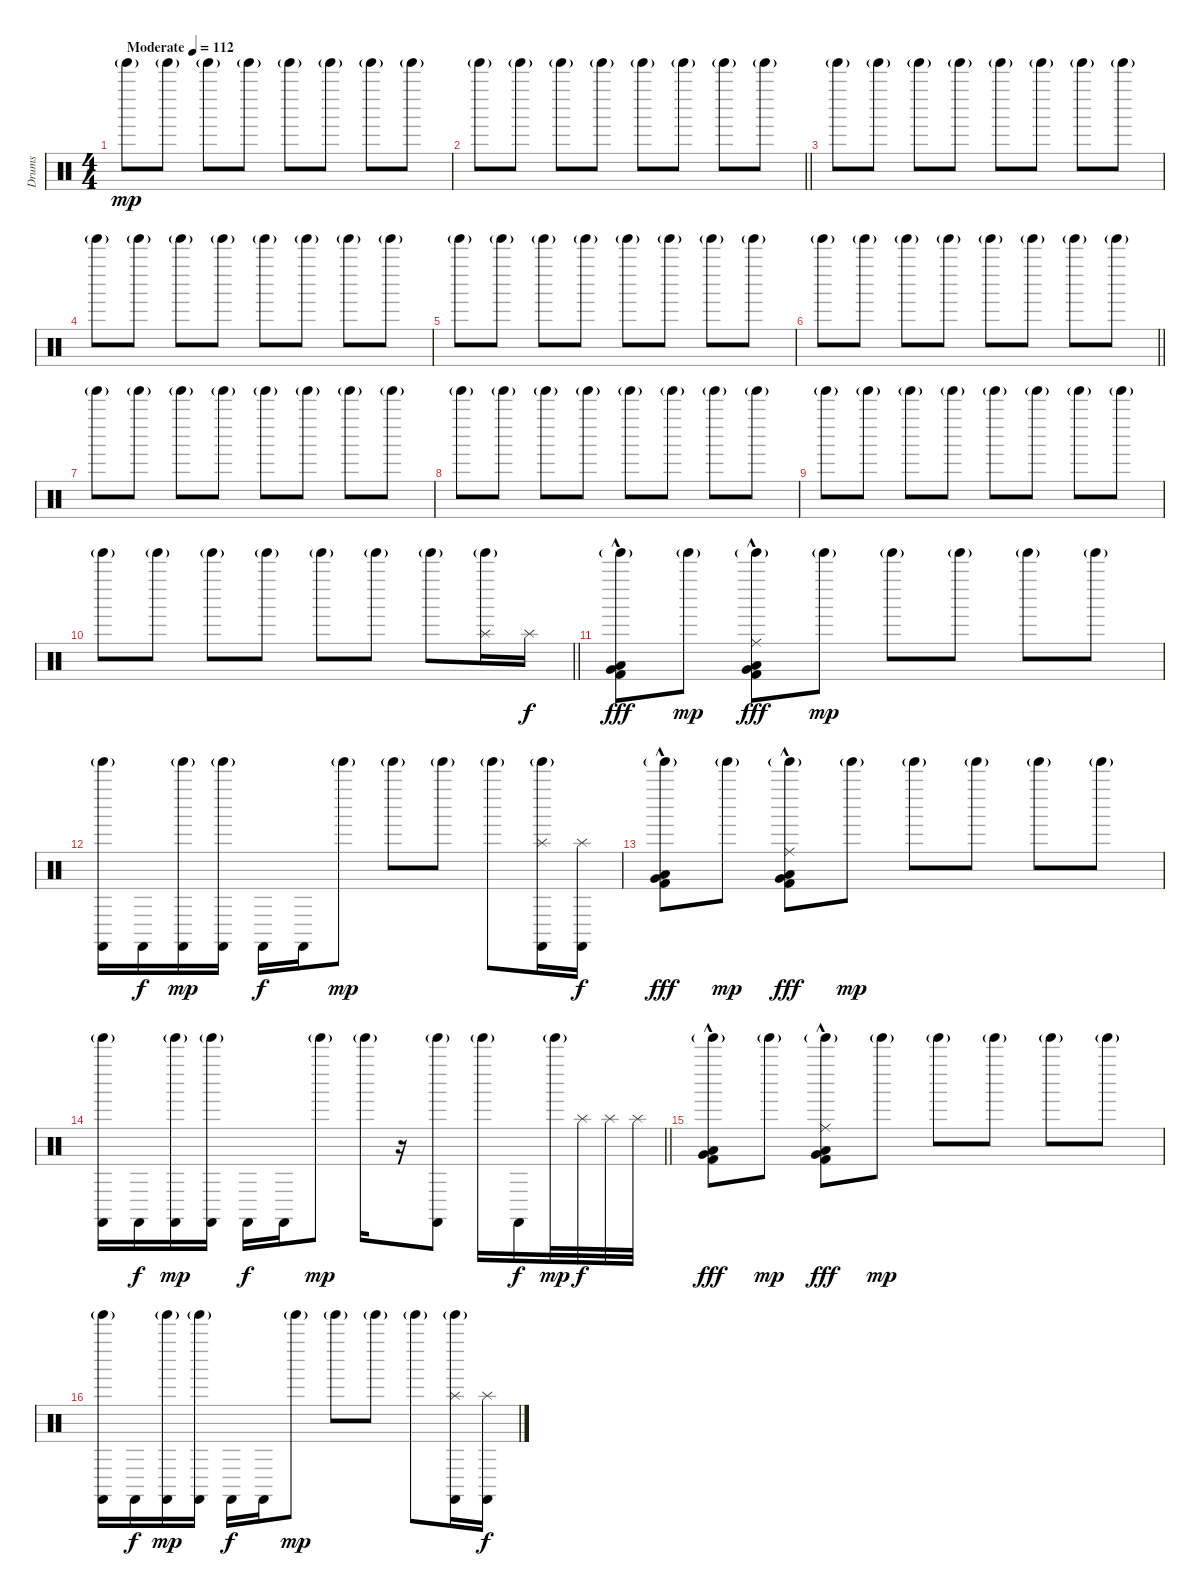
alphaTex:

\track ("Drums" "Drums") {instrument percussion}
\staff {score}
\articulation defaults
\ts (4 4)
\tempo (112 "Moderate")
\clef neutral
\ks c "Tinkle Bell (hit)"{g}.8{dy mp} "Tinkle Bell (hit)"{g}.8 "Tinkle Bell (hit)"{g}.8 "Tinkle Bell (hit)"{g}.8 "Tinkle Bell (hit)"{g}.8 "Tinkle Bell (hit)"{g}.8 "Tinkle Bell (hit)"{g}.8 "Tinkle Bell (hit)"{g}.8
|
\barLineRight lightlight "Tinkle Bell (hit)"{g}.8 "Tinkle Bell (hit)"{g}.8 "Tinkle Bell (hit)"{g}.8 "Tinkle Bell (hit)"{g}.8 "Tinkle Bell (hit)"{g}.8 "Tinkle Bell (hit)"{g}.8 "Tinkle Bell (hit)"{g}.8 "Tinkle Bell (hit)"{g}.8
|
"Tinkle Bell (hit)"{g}.8 "Tinkle Bell (hit)"{g}.8 "Tinkle Bell (hit)"{g}.8 "Tinkle Bell (hit)"{g}.8 "Tinkle Bell (hit)"{g}.8 "Tinkle Bell (hit)"{g}.8 "Tinkle Bell (hit)"{g}.8 "Tinkle Bell (hit)"{g}.8 |
"Tinkle Bell (hit)"{g}.8 "Tinkle Bell (hit)"{g}.8 "Tinkle Bell (hit)"{g}.8 "Tinkle Bell (hit)"{g}.8 "Tinkle Bell (hit)"{g}.8 "Tinkle Bell (hit)"{g}.8 "Tinkle Bell (hit)"{g}.8 "Tinkle Bell (hit)"{g}.8 |
"Tinkle Bell (hit)"{g}.8 "Tinkle Bell (hit)"{g}.8 "Tinkle Bell (hit)"{g}.8 "Tinkle Bell (hit)"{g}.8 "Tinkle Bell (hit)"{g}.8 "Tinkle Bell (hit)"{g}.8 "Tinkle Bell (hit)"{g}.8 "Tinkle Bell (hit)"{g}.8 |
\barLineRight lightlight "Tinkle Bell (hit)"{g}.8 "Tinkle Bell (hit)"{g}.8 "Tinkle Bell (hit)"{g}.8 "Tinkle Bell (hit)"{g}.8 "Tinkle Bell (hit)"{g}.8 "Tinkle Bell (hit)"{g}.8 "Tinkle Bell (hit)"{g}.8 "Tinkle Bell (hit)"{g}.8
|
"Tinkle Bell (hit)"{g}.8 "Tinkle Bell (hit)"{g}.8 "Tinkle Bell (hit)"{g}.8 "Tinkle Bell (hit)"{g}.8 "Tinkle Bell (hit)"{g}.8 "Tinkle Bell (hit)"{g}.8 "Tinkle Bell (hit)"{g}.8 "Tinkle Bell (hit)"{g}.8 |
"Tinkle Bell (hit)"{g}.8 "Tinkle Bell (hit)"{g}.8 "Tinkle Bell (hit)"{g}.8 "Tinkle Bell (hit)"{g}.8 "Tinkle Bell (hit)"{g}.8 "Tinkle Bell (hit)"{g}.8 "Tinkle Bell (hit)"{g}.8 "Tinkle Bell (hit)"{g}.8 |
"Tinkle Bell (hit)"{g}.8 "Tinkle Bell (hit)"{g}.8 "Tinkle Bell (hit)"{g}.8 "Tinkle Bell (hit)"{g}.8 "Tinkle Bell (hit)"{g}.8 "Tinkle Bell (hit)"{g}.8 "Tinkle Bell (hit)"{g}.8 "Tinkle Bell (hit)"{g}.8 |
\barLineRight lightlight "Tinkle Bell (hit)"{g}.8 "Tinkle Bell (hit)"{g}.8 "Tinkle Bell (hit)"{g}.8 "Tinkle Bell (hit)"{g}.8 "Tinkle Bell (hit)"{g}.8 "Tinkle Bell (hit)"{g}.8 "Tinkle Bell (hit)"{g}.8
("Splash (hit)" "Tinkle Bell (hit)"{g}).16 "Splash (hit)".16{dy f} |
("Tinkle Bell (hit)"{g} "Low Tom (hit)"{hac} "Very Low Tom (hit)"{hac} "Kick (hit) 2"{hac}).8{dy fff} "Tinkle Bell (hit)"{g}.8{dy mp} ("Ride (middle)"{hac} "Tinkle Bell (hit)"{g} "Low Tom (hit)"{hac} "Very Low Tom (hit)"{hac} "Kick (hit) 2"{hac}).8{dy fff} "Tinkle Bell (hit)"{g}.8{dy mp} "Tinkle Bell (hit)"{g}.8 "Tinkle Bell (hit)"{g}.8 "Tinkle Bell (hit)"{g}.8 "Tinkle Bell (hit)"{g}.8 |
("Castanets (hit)" "Tinkle Bell (hit)"{g}).16 "Castanets (hit)".16{dy f} ("Castanets (hit)" "Tinkle Bell (hit)"{g}).16{dy mp} ("Castanets (hit)" "Tinkle Bell (hit)"{g}).16 "Castanets (hit)".16{dy f} "Castanets (hit)".16 "Tinkle Bell (hit)"{g}.8{dy mp} "Tinkle Bell (hit)"{g}.8 "Tinkle Bell (hit)"{g}.8 "Tinkle Bell (hit)"{g}.8 ("Castanets (hit)" "Splash (hit)" "Tinkle Bell (hit)"{g}).16 ("Castanets (hit)" "Splash (hit)").16{dy f} |
("Tinkle Bell (hit)"{g} "Low Tom (hit)"{hac} "Very Low Tom (hit)"{hac} "Kick (hit) 2"{hac}).8{dy fff} "Tinkle Bell (hit)"{g}.8{dy mp} ("Ride (middle)"{hac} "Tinkle Bell (hit)"{g} "Low Tom (hit)"{hac} "Very Low Tom (hit)"{hac} "Kick (hit) 2"{hac}).8{dy fff} "Tinkle Bell (hit)"{g}.8{dy mp} "Tinkle Bell (hit)"{g}.8 "Tinkle Bell (hit)"{g}.8 "Tinkle Bell (hit)"{g}.8 "Tinkle Bell (hit)"{g}.8 |
\barLineRight lightlight
("Castanets (hit)" "Tinkle Bell (hit)"{g}).16 "Castanets (hit)".16{dy f} ("Castanets (hit)" "Tinkle Bell (hit)"{g}).16{dy mp} ("Castanets (hit)" "Tinkle Bell (hit)"{g}).16 "Castanets (hit)".16{dy f} "Castanets (hit)".16 "Tinkle Bell (hit)"{g}.8{dy mp} "Tinkle Bell (hit)"{g}.16 r.16 ("Castanets (hit)" "Tinkle Bell (hit)"{g}).8 "Tinkle Bell (hit)"{g}.16 "Castanets (hit)".16{dy f} "Tinkle Bell (hit)"{g}.32{dy mp} "Splash (hit)".32{dy f} "Splash (hit)".32 "Splash (hit)".32 |
("Tinkle Bell (hit)"{g} "Low Tom (hit)"{hac} "Very Low Tom (hit)"{hac} "Kick (hit) 2"{hac}).8{dy fff} "Tinkle Bell (hit)"{g}.8{dy mp} ("Ride (middle)" "Tinkle Bell (hit)"{g} "Low Tom (hit)"{hac} "Very Low Tom (hit)"{hac} "Kick (hit) 2"{hac}).8{dy fff} "Tinkle Bell (hit)"{g}.8{dy mp} "Tinkle Bell (hit)"{g}.8 "Tinkle Bell (hit)"{g}.8 "Tinkle Bell (hit)"{g}.8 "Tinkle Bell (hit)"{g}.8 |
("Castanets (hit)" "Tinkle Bell (hit)"{g}).16 "Castanets (hit)".16{dy f} ("Castanets (hit)" "Tinkle Bell (hit)"{g}).16{dy mp} ("Castanets (hit)" "Tinkle Bell (hit)"{g}).16 "Castanets (hit)".16{dy f} "Castanets (hit)".16 "Tinkle Bell (hit)"{g}.8{dy mp} "Tinkle Bell (hit)"{g}.8 "Tinkle Bell (hit)"{g}.8 "Tinkle Bell (hit)"{g}.8 ("Castanets (hit)" "Splash (hit)" "Tinkle Bell (hit)"{g}).16 ("Castanets (hit)" "Splash (hit)").16{dy f}
